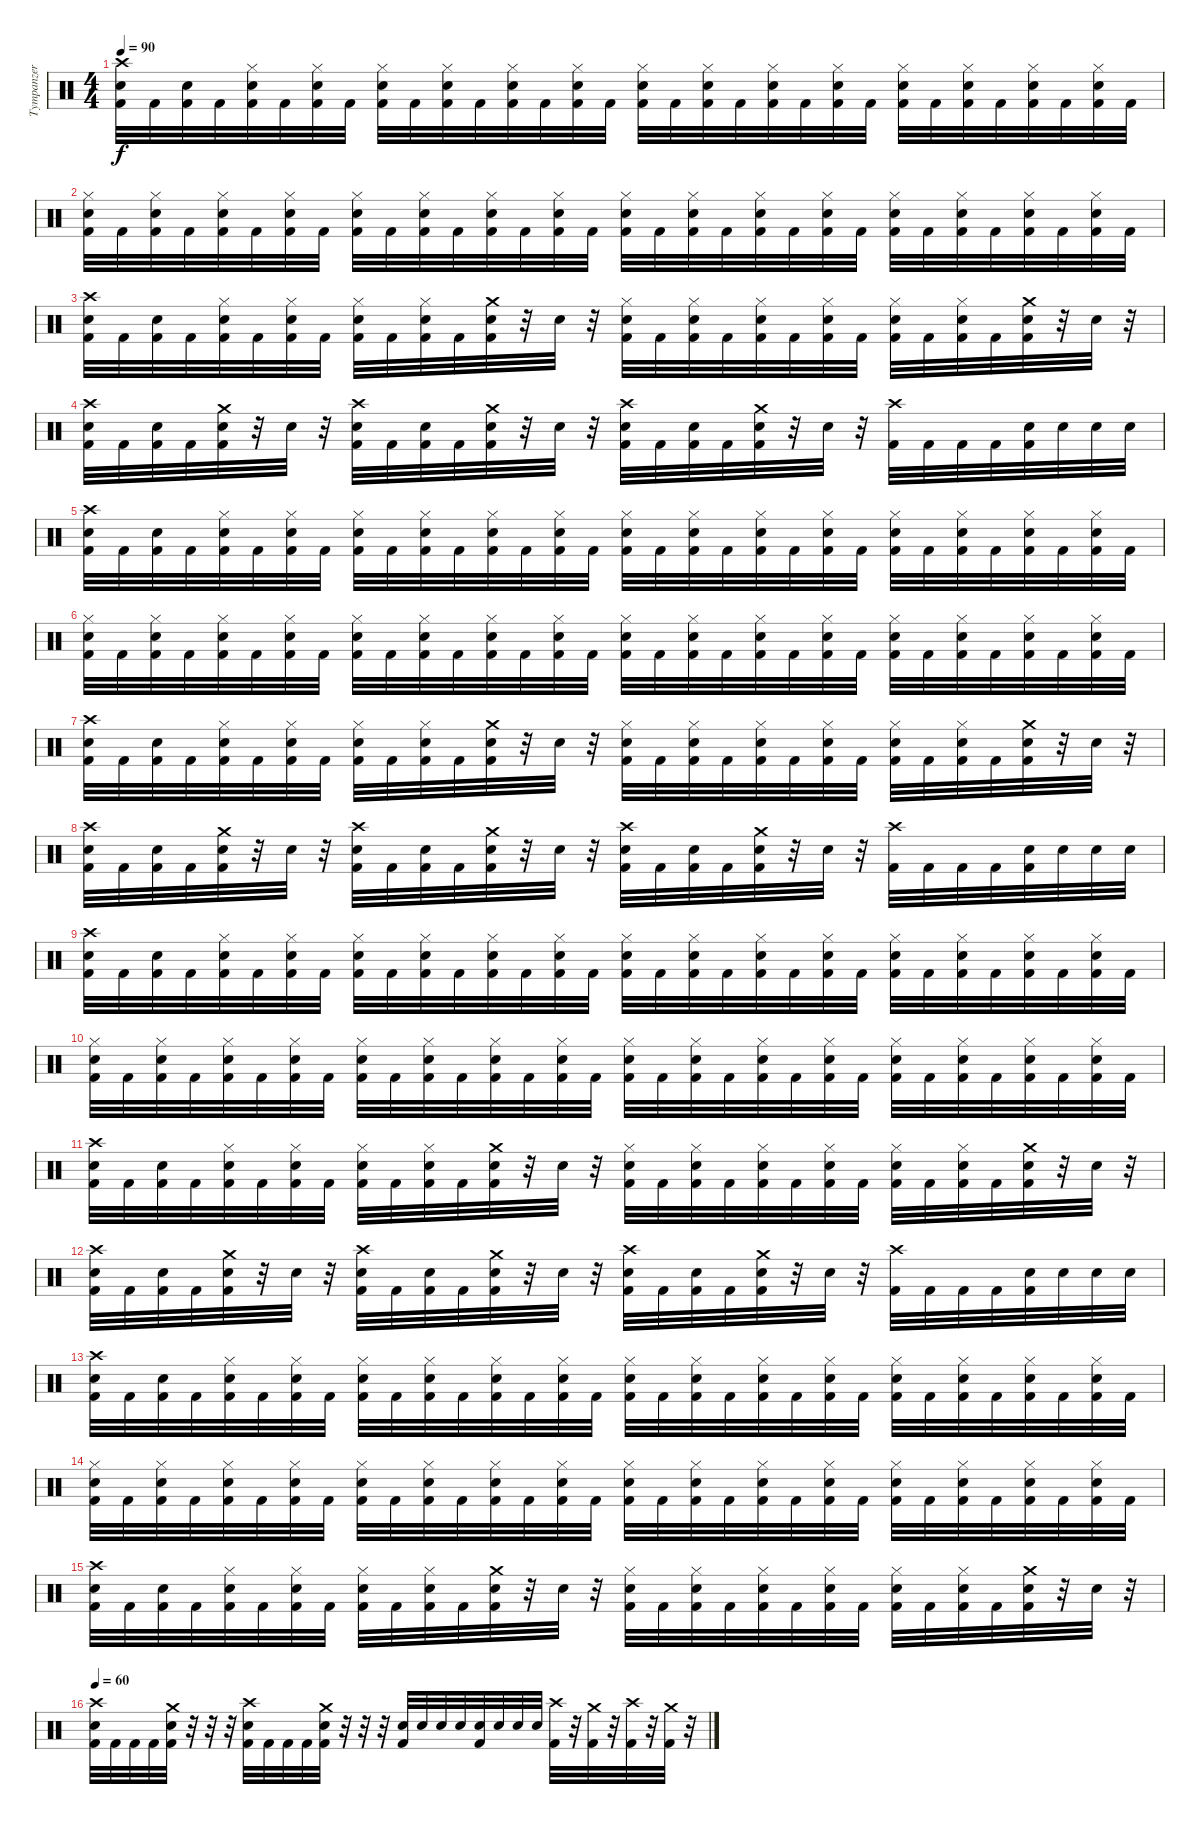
\track ("Tympanzer" "Tympanzer") {instrument percussion}
\staff {score}
\articulation defaults
\ts (4 4)
\tempo 90
\clef neutral
\ks c
("Crash high (hit)" "Electric Snare (hit)" "Kick (hit) 2").32{dy f} "Kick (hit) 2".32 ("Electric Snare (hit)" "Kick (hit) 2").32 "Kick (hit) 2".32 ("Hi-Hat (closed)" "Electric Snare (hit)" "Kick (hit) 2").32 "Kick (hit) 2".32 ("Hi-Hat (closed)" "Electric Snare (hit)" "Kick (hit) 2").32 "Kick (hit) 2".32 ("Hi-Hat (closed)" "Electric Snare (hit)" "Kick (hit) 2").32 "Kick (hit) 2".32 ("Hi-Hat (closed)" "Electric Snare (hit)" "Kick (hit) 2").32 "Kick (hit) 2".32 ("Hi-Hat (closed)" "Electric Snare (hit)" "Kick (hit) 2").32 "Kick (hit) 2".32 ("Hi-Hat (closed)" "Electric Snare (hit)" "Kick (hit) 2").32 "Kick (hit) 2".32 ("Hi-Hat (closed)" "Electric Snare (hit)" "Kick (hit) 2").32 "Kick (hit) 2".32 ("Hi-Hat (closed)" "Electric Snare (hit)" "Kick (hit) 2").32 "Kick (hit) 2".32 ("Hi-Hat (closed)" "Electric Snare (hit)" "Kick (hit) 2").32 "Kick (hit) 2".32 ("Hi-Hat (closed)" "Electric Snare (hit)" "Kick (hit) 2").32 "Kick (hit) 2".32 ("Hi-Hat (closed)" "Electric Snare (hit)" "Kick (hit) 2").32 "Kick (hit) 2".32 ("Hi-Hat (closed)" "Electric Snare (hit)" "Kick (hit) 2").32 "Kick (hit) 2".32 ("Hi-Hat (closed)" "Electric Snare (hit)" "Kick (hit) 2").32 "Kick (hit) 2".32 ("Hi-Hat (closed)" "Electric Snare (hit)" "Kick (hit) 2").32 "Kick (hit) 2".32 |
("Hi-Hat (closed)" "Electric Snare (hit)" "Kick (hit) 2").32 "Kick (hit) 2".32 ("Hi-Hat (closed)" "Electric Snare (hit)" "Kick (hit) 2").32 "Kick (hit) 2".32 ("Hi-Hat (closed)" "Electric Snare (hit)" "Kick (hit) 2").32 "Kick (hit) 2".32 ("Hi-Hat (closed)" "Electric Snare (hit)" "Kick (hit) 2").32 "Kick (hit) 2".32 ("Hi-Hat (closed)" "Electric Snare (hit)" "Kick (hit) 2").32 "Kick (hit) 2".32 ("Hi-Hat (closed)" "Electric Snare (hit)" "Kick (hit) 2").32 "Kick (hit) 2".32 ("Hi-Hat (closed)" "Electric Snare (hit)" "Kick (hit) 2").32 "Kick (hit) 2".32 ("Hi-Hat (closed)" "Electric Snare (hit)" "Kick (hit) 2").32 "Kick (hit) 2".32 ("Hi-Hat (closed)" "Electric Snare (hit)" "Kick (hit) 2").32 "Kick (hit) 2".32 ("Hi-Hat (closed)" "Electric Snare (hit)" "Kick (hit) 2").32 "Kick (hit) 2".32 ("Hi-Hat (closed)" "Electric Snare (hit)" "Kick (hit) 2").32 "Kick (hit) 2".32 ("Hi-Hat (closed)" "Electric Snare (hit)" "Kick (hit) 2").32 "Kick (hit) 2".32 ("Hi-Hat (closed)" "Electric Snare (hit)" "Kick (hit) 2").32 "Kick (hit) 2".32 ("Hi-Hat (closed)" "Electric Snare (hit)" "Kick (hit) 2").32 "Kick (hit) 2".32 ("Hi-Hat (closed)" "Electric Snare (hit)" "Kick (hit) 2").32 "Kick (hit) 2".32 ("Hi-Hat (closed)" "Electric Snare (hit)" "Kick (hit) 2").32 "Kick (hit) 2".32 |
("Crash high (hit)" "Electric Snare (hit)" "Kick (hit) 2").32 "Kick (hit) 2".32 ("Electric Snare (hit)" "Kick (hit) 2").32 "Kick (hit) 2".32 ("Hi-Hat (closed)" "Electric Snare (hit)" "Kick (hit) 2").32 "Kick (hit) 2".32 ("Hi-Hat (closed)" "Electric Snare (hit)" "Kick (hit) 2").32 "Kick (hit) 2".32 ("Hi-Hat (closed)" "Electric Snare (hit)" "Kick (hit) 2").32 "Kick (hit) 2".32 ("Hi-Hat (closed)" "Electric Snare (hit)" "Kick (hit) 2").32 "Kick (hit) 2".32 ("Crash medium (hit)" "Electric Snare (hit)" "Kick (hit) 2").32 r.32 "Electric Snare (hit)".32 r.32 ("Hi-Hat (closed)" "Electric Snare (hit)" "Kick (hit) 2").32 "Kick (hit) 2".32 ("Hi-Hat (closed)" "Electric Snare (hit)" "Kick (hit) 2").32 "Kick (hit) 2".32 ("Hi-Hat (closed)" "Electric Snare (hit)" "Kick (hit) 2").32 "Kick (hit) 2".32 ("Hi-Hat (closed)" "Electric Snare (hit)" "Kick (hit) 2").32 "Kick (hit) 2".32 ("Hi-Hat (closed)" "Electric Snare (hit)" "Kick (hit) 2").32 "Kick (hit) 2".32 ("Hi-Hat (closed)" "Electric Snare (hit)" "Kick (hit) 2").32 "Kick (hit) 2".32 ("Crash medium (hit)" "Electric Snare (hit)" "Kick (hit) 2").32 r.32 "Electric Snare (hit)".32 r.32 |
("Crash high (hit)" "Electric Snare (hit)" "Kick (hit) 2").32 "Kick (hit) 2".32 ("Electric Snare (hit)" "Kick (hit) 2").32 "Kick (hit) 2".32 ("Crash medium (hit)" "Electric Snare (hit)" "Kick (hit) 2").32 r.32 "Electric Snare (hit)".32 r.32 ("Crash high (hit)" "Electric Snare (hit)" "Kick (hit) 2").32 "Kick (hit) 2".32 ("Electric Snare (hit)" "Kick (hit) 2").32 "Kick (hit) 2".32 ("Crash medium (hit)" "Electric Snare (hit)" "Kick (hit) 2").32 r.32 "Electric Snare (hit)".32 r.32 ("Crash high (hit)" "Electric Snare (hit)" "Kick (hit) 2").32 "Kick (hit) 2".32 ("Electric Snare (hit)" "Kick (hit) 2").32 "Kick (hit) 2".32 ("Crash medium (hit)" "Electric Snare (hit)" "Kick (hit) 2").32 r.32 "Electric Snare (hit)".32 r.32 ("Crash high (hit)" "Kick (hit) 2").32 "Kick (hit) 2".32 "Kick (hit) 2".32 "Kick (hit) 2".32 ("Electric Snare (hit)" "Kick (hit) 2").32 "Electric Snare (hit)".32 "Electric Snare (hit)".32 "Electric Snare (hit)".32 |
("Crash high (hit)" "Electric Snare (hit)" "Kick (hit) 2").32 "Kick (hit) 2".32 ("Electric Snare (hit)" "Kick (hit) 2").32 "Kick (hit) 2".32 ("Hi-Hat (closed)" "Electric Snare (hit)" "Kick (hit) 2").32 "Kick (hit) 2".32 ("Hi-Hat (closed)" "Electric Snare (hit)" "Kick (hit) 2").32 "Kick (hit) 2".32 ("Hi-Hat (closed)" "Electric Snare (hit)" "Kick (hit) 2").32 "Kick (hit) 2".32 ("Hi-Hat (closed)" "Electric Snare (hit)" "Kick (hit) 2").32 "Kick (hit) 2".32 ("Hi-Hat (closed)" "Electric Snare (hit)" "Kick (hit) 2").32 "Kick (hit) 2".32 ("Hi-Hat (closed)" "Electric Snare (hit)" "Kick (hit) 2").32 "Kick (hit) 2".32 ("Hi-Hat (closed)" "Electric Snare (hit)" "Kick (hit) 2").32 "Kick (hit) 2".32 ("Hi-Hat (closed)" "Electric Snare (hit)" "Kick (hit) 2").32 "Kick (hit) 2".32 ("Hi-Hat (closed)" "Electric Snare (hit)" "Kick (hit) 2").32 "Kick (hit) 2".32 ("Hi-Hat (closed)" "Electric Snare (hit)" "Kick (hit) 2").32 "Kick (hit) 2".32 ("Hi-Hat (closed)" "Electric Snare (hit)" "Kick (hit) 2").32 "Kick (hit) 2".32 ("Hi-Hat (closed)" "Electric Snare (hit)" "Kick (hit) 2").32 "Kick (hit) 2".32 ("Hi-Hat (closed)" "Electric Snare (hit)" "Kick (hit) 2").32 "Kick (hit) 2".32 ("Hi-Hat (closed)" "Electric Snare (hit)" "Kick (hit) 2").32 "Kick (hit) 2".32 |
("Hi-Hat (closed)" "Electric Snare (hit)" "Kick (hit) 2").32 "Kick (hit) 2".32 ("Hi-Hat (closed)" "Electric Snare (hit)" "Kick (hit) 2").32 "Kick (hit) 2".32 ("Hi-Hat (closed)" "Electric Snare (hit)" "Kick (hit) 2").32 "Kick (hit) 2".32 ("Hi-Hat (closed)" "Electric Snare (hit)" "Kick (hit) 2").32 "Kick (hit) 2".32 ("Hi-Hat (closed)" "Electric Snare (hit)" "Kick (hit) 2").32 "Kick (hit) 2".32 ("Hi-Hat (closed)" "Electric Snare (hit)" "Kick (hit) 2").32 "Kick (hit) 2".32 ("Hi-Hat (closed)" "Electric Snare (hit)" "Kick (hit) 2").32 "Kick (hit) 2".32 ("Hi-Hat (closed)" "Electric Snare (hit)" "Kick (hit) 2").32 "Kick (hit) 2".32 ("Hi-Hat (closed)" "Electric Snare (hit)" "Kick (hit) 2").32 "Kick (hit) 2".32 ("Hi-Hat (closed)" "Electric Snare (hit)" "Kick (hit) 2").32 "Kick (hit) 2".32 ("Hi-Hat (closed)" "Electric Snare (hit)" "Kick (hit) 2").32 "Kick (hit) 2".32 ("Hi-Hat (closed)" "Electric Snare (hit)" "Kick (hit) 2").32 "Kick (hit) 2".32 ("Hi-Hat (closed)" "Electric Snare (hit)" "Kick (hit) 2").32 "Kick (hit) 2".32 ("Hi-Hat (closed)" "Electric Snare (hit)" "Kick (hit) 2").32 "Kick (hit) 2".32 ("Hi-Hat (closed)" "Electric Snare (hit)" "Kick (hit) 2").32 "Kick (hit) 2".32 ("Hi-Hat (closed)" "Electric Snare (hit)" "Kick (hit) 2").32 "Kick (hit) 2".32 |
("Crash high (hit)" "Electric Snare (hit)" "Kick (hit) 2").32 "Kick (hit) 2".32 ("Electric Snare (hit)" "Kick (hit) 2").32 "Kick (hit) 2".32 ("Hi-Hat (closed)" "Electric Snare (hit)" "Kick (hit) 2").32 "Kick (hit) 2".32 ("Hi-Hat (closed)" "Electric Snare (hit)" "Kick (hit) 2").32 "Kick (hit) 2".32 ("Hi-Hat (closed)" "Electric Snare (hit)" "Kick (hit) 2").32 "Kick (hit) 2".32 ("Hi-Hat (closed)" "Electric Snare (hit)" "Kick (hit) 2").32 "Kick (hit) 2".32 ("Crash medium (hit)" "Electric Snare (hit)" "Kick (hit) 2").32 r.32 "Electric Snare (hit)".32 r.32 ("Hi-Hat (closed)" "Electric Snare (hit)" "Kick (hit) 2").32 "Kick (hit) 2".32 ("Hi-Hat (closed)" "Electric Snare (hit)" "Kick (hit) 2").32 "Kick (hit) 2".32 ("Hi-Hat (closed)" "Electric Snare (hit)" "Kick (hit) 2").32 "Kick (hit) 2".32 ("Hi-Hat (closed)" "Electric Snare (hit)" "Kick (hit) 2").32 "Kick (hit) 2".32 ("Hi-Hat (closed)" "Electric Snare (hit)" "Kick (hit) 2").32 "Kick (hit) 2".32 ("Hi-Hat (closed)" "Electric Snare (hit)" "Kick (hit) 2").32 "Kick (hit) 2".32 ("Crash medium (hit)" "Electric Snare (hit)" "Kick (hit) 2").32 r.32 "Electric Snare (hit)".32 r.32 |
("Crash high (hit)" "Electric Snare (hit)" "Kick (hit) 2").32 "Kick (hit) 2".32 ("Electric Snare (hit)" "Kick (hit) 2").32 "Kick (hit) 2".32 ("Crash medium (hit)" "Electric Snare (hit)" "Kick (hit) 2").32 r.32 "Electric Snare (hit)".32 r.32 ("Crash high (hit)" "Electric Snare (hit)" "Kick (hit) 2").32 "Kick (hit) 2".32 ("Electric Snare (hit)" "Kick (hit) 2").32 "Kick (hit) 2".32 ("Crash medium (hit)" "Electric Snare (hit)" "Kick (hit) 2").32 r.32 "Electric Snare (hit)".32 r.32 ("Crash high (hit)" "Electric Snare (hit)" "Kick (hit) 2").32 "Kick (hit) 2".32 ("Electric Snare (hit)" "Kick (hit) 2").32 "Kick (hit) 2".32 ("Crash medium (hit)" "Electric Snare (hit)" "Kick (hit) 2").32 r.32 "Electric Snare (hit)".32 r.32 ("Crash high (hit)" "Kick (hit) 2").32 "Kick (hit) 2".32 "Kick (hit) 2".32 "Kick (hit) 2".32 ("Electric Snare (hit)" "Kick (hit) 2").32 "Electric Snare (hit)".32 "Electric Snare (hit)".32 "Electric Snare (hit)".32 |
("Crash high (hit)" "Electric Snare (hit)" "Kick (hit) 2").32 "Kick (hit) 2".32 ("Electric Snare (hit)" "Kick (hit) 2").32 "Kick (hit) 2".32 ("Hi-Hat (closed)" "Electric Snare (hit)" "Kick (hit) 2").32 "Kick (hit) 2".32 ("Hi-Hat (closed)" "Electric Snare (hit)" "Kick (hit) 2").32 "Kick (hit) 2".32 ("Hi-Hat (closed)" "Electric Snare (hit)" "Kick (hit) 2").32 "Kick (hit) 2".32 ("Hi-Hat (closed)" "Electric Snare (hit)" "Kick (hit) 2").32 "Kick (hit) 2".32 ("Hi-Hat (closed)" "Electric Snare (hit)" "Kick (hit) 2").32 "Kick (hit) 2".32 ("Hi-Hat (closed)" "Electric Snare (hit)" "Kick (hit) 2").32 "Kick (hit) 2".32 ("Hi-Hat (closed)" "Electric Snare (hit)" "Kick (hit) 2").32 "Kick (hit) 2".32 ("Hi-Hat (closed)" "Electric Snare (hit)" "Kick (hit) 2").32 "Kick (hit) 2".32 ("Hi-Hat (closed)" "Electric Snare (hit)" "Kick (hit) 2").32 "Kick (hit) 2".32 ("Hi-Hat (closed)" "Electric Snare (hit)" "Kick (hit) 2").32 "Kick (hit) 2".32 ("Hi-Hat (closed)" "Electric Snare (hit)" "Kick (hit) 2").32 "Kick (hit) 2".32 ("Hi-Hat (closed)" "Electric Snare (hit)" "Kick (hit) 2").32 "Kick (hit) 2".32 ("Hi-Hat (closed)" "Electric Snare (hit)" "Kick (hit) 2").32 "Kick (hit) 2".32 ("Hi-Hat (closed)" "Electric Snare (hit)" "Kick (hit) 2").32 "Kick (hit) 2".32 |
("Hi-Hat (closed)" "Electric Snare (hit)" "Kick (hit) 2").32 "Kick (hit) 2".32 ("Hi-Hat (closed)" "Electric Snare (hit)" "Kick (hit) 2").32 "Kick (hit) 2".32 ("Hi-Hat (closed)" "Electric Snare (hit)" "Kick (hit) 2").32 "Kick (hit) 2".32 ("Hi-Hat (closed)" "Electric Snare (hit)" "Kick (hit) 2").32 "Kick (hit) 2".32 ("Hi-Hat (closed)" "Electric Snare (hit)" "Kick (hit) 2").32 "Kick (hit) 2".32 ("Hi-Hat (closed)" "Electric Snare (hit)" "Kick (hit) 2").32 "Kick (hit) 2".32 ("Hi-Hat (closed)" "Electric Snare (hit)" "Kick (hit) 2").32 "Kick (hit) 2".32 ("Hi-Hat (closed)" "Electric Snare (hit)" "Kick (hit) 2").32 "Kick (hit) 2".32 ("Hi-Hat (closed)" "Electric Snare (hit)" "Kick (hit) 2").32 "Kick (hit) 2".32 ("Hi-Hat (closed)" "Electric Snare (hit)" "Kick (hit) 2").32 "Kick (hit) 2".32 ("Hi-Hat (closed)" "Electric Snare (hit)" "Kick (hit) 2").32 "Kick (hit) 2".32 ("Hi-Hat (closed)" "Electric Snare (hit)" "Kick (hit) 2").32 "Kick (hit) 2".32 ("Hi-Hat (closed)" "Electric Snare (hit)" "Kick (hit) 2").32 "Kick (hit) 2".32 ("Hi-Hat (closed)" "Electric Snare (hit)" "Kick (hit) 2").32 "Kick (hit) 2".32 ("Hi-Hat (closed)" "Electric Snare (hit)" "Kick (hit) 2").32 "Kick (hit) 2".32 ("Hi-Hat (closed)" "Electric Snare (hit)" "Kick (hit) 2").32 "Kick (hit) 2".32 |
("Crash high (hit)" "Electric Snare (hit)" "Kick (hit) 2").32 "Kick (hit) 2".32 ("Electric Snare (hit)" "Kick (hit) 2").32 "Kick (hit) 2".32 ("Hi-Hat (closed)" "Electric Snare (hit)" "Kick (hit) 2").32 "Kick (hit) 2".32 ("Hi-Hat (closed)" "Electric Snare (hit)" "Kick (hit) 2").32 "Kick (hit) 2".32 ("Hi-Hat (closed)" "Electric Snare (hit)" "Kick (hit) 2").32 "Kick (hit) 2".32 ("Hi-Hat (closed)" "Electric Snare (hit)" "Kick (hit) 2").32 "Kick (hit) 2".32 ("Crash medium (hit)" "Electric Snare (hit)" "Kick (hit) 2").32 r.32 "Electric Snare (hit)".32 r.32 ("Hi-Hat (closed)" "Electric Snare (hit)" "Kick (hit) 2").32 "Kick (hit) 2".32 ("Hi-Hat (closed)" "Electric Snare (hit)" "Kick (hit) 2").32 "Kick (hit) 2".32 ("Hi-Hat (closed)" "Electric Snare (hit)" "Kick (hit) 2").32 "Kick (hit) 2".32 ("Hi-Hat (closed)" "Electric Snare (hit)" "Kick (hit) 2").32 "Kick (hit) 2".32 ("Hi-Hat (closed)" "Electric Snare (hit)" "Kick (hit) 2").32 "Kick (hit) 2".32 ("Hi-Hat (closed)" "Electric Snare (hit)" "Kick (hit) 2").32 "Kick (hit) 2".32 ("Crash medium (hit)" "Electric Snare (hit)" "Kick (hit) 2").32 r.32 "Electric Snare (hit)".32 r.32 |
("Crash high (hit)" "Electric Snare (hit)" "Kick (hit) 2").32 "Kick (hit) 2".32 ("Electric Snare (hit)" "Kick (hit) 2").32 "Kick (hit) 2".32 ("Crash medium (hit)" "Electric Snare (hit)" "Kick (hit) 2").32 r.32 "Electric Snare (hit)".32 r.32 ("Crash high (hit)" "Electric Snare (hit)" "Kick (hit) 2").32 "Kick (hit) 2".32 ("Electric Snare (hit)" "Kick (hit) 2").32 "Kick (hit) 2".32 ("Crash medium (hit)" "Electric Snare (hit)" "Kick (hit) 2").32 r.32 "Electric Snare (hit)".32 r.32 ("Crash high (hit)" "Electric Snare (hit)" "Kick (hit) 2").32 "Kick (hit) 2".32 ("Electric Snare (hit)" "Kick (hit) 2").32 "Kick (hit) 2".32 ("Crash medium (hit)" "Electric Snare (hit)" "Kick (hit) 2").32 r.32 "Electric Snare (hit)".32 r.32 ("Crash high (hit)" "Kick (hit) 2").32 "Kick (hit) 2".32 "Kick (hit) 2".32 "Kick (hit) 2".32 ("Electric Snare (hit)" "Kick (hit) 2").32 "Electric Snare (hit)".32 "Electric Snare (hit)".32 "Electric Snare (hit)".32 |
("Crash high (hit)" "Electric Snare (hit)" "Kick (hit) 2").32 "Kick (hit) 2".32 ("Electric Snare (hit)" "Kick (hit) 2").32 "Kick (hit) 2".32 ("Hi-Hat (closed)" "Electric Snare (hit)" "Kick (hit) 2").32 "Kick (hit) 2".32 ("Hi-Hat (closed)" "Electric Snare (hit)" "Kick (hit) 2").32 "Kick (hit) 2".32 ("Hi-Hat (closed)" "Electric Snare (hit)" "Kick (hit) 2").32 "Kick (hit) 2".32 ("Hi-Hat (closed)" "Electric Snare (hit)" "Kick (hit) 2").32 "Kick (hit) 2".32 ("Hi-Hat (closed)" "Electric Snare (hit)" "Kick (hit) 2").32 "Kick (hit) 2".32 ("Hi-Hat (closed)" "Electric Snare (hit)" "Kick (hit) 2").32 "Kick (hit) 2".32 ("Hi-Hat (closed)" "Electric Snare (hit)" "Kick (hit) 2").32 "Kick (hit) 2".32 ("Hi-Hat (closed)" "Electric Snare (hit)" "Kick (hit) 2").32 "Kick (hit) 2".32 ("Hi-Hat (closed)" "Electric Snare (hit)" "Kick (hit) 2").32 "Kick (hit) 2".32 ("Hi-Hat (closed)" "Electric Snare (hit)" "Kick (hit) 2").32 "Kick (hit) 2".32 ("Hi-Hat (closed)" "Electric Snare (hit)" "Kick (hit) 2").32 "Kick (hit) 2".32 ("Hi-Hat (closed)" "Electric Snare (hit)" "Kick (hit) 2").32 "Kick (hit) 2".32 ("Hi-Hat (closed)" "Electric Snare (hit)" "Kick (hit) 2").32 "Kick (hit) 2".32 ("Hi-Hat (closed)" "Electric Snare (hit)" "Kick (hit) 2").32 "Kick (hit) 2".32 |
("Hi-Hat (closed)" "Electric Snare (hit)" "Kick (hit) 2").32 "Kick (hit) 2".32 ("Hi-Hat (closed)" "Electric Snare (hit)" "Kick (hit) 2").32 "Kick (hit) 2".32 ("Hi-Hat (closed)" "Electric Snare (hit)" "Kick (hit) 2").32 "Kick (hit) 2".32 ("Hi-Hat (closed)" "Electric Snare (hit)" "Kick (hit) 2").32 "Kick (hit) 2".32 ("Hi-Hat (closed)" "Electric Snare (hit)" "Kick (hit) 2").32 "Kick (hit) 2".32 ("Hi-Hat (closed)" "Electric Snare (hit)" "Kick (hit) 2").32 "Kick (hit) 2".32 ("Hi-Hat (closed)" "Electric Snare (hit)" "Kick (hit) 2").32 "Kick (hit) 2".32 ("Hi-Hat (closed)" "Electric Snare (hit)" "Kick (hit) 2").32 "Kick (hit) 2".32 ("Hi-Hat (closed)" "Electric Snare (hit)" "Kick (hit) 2").32 "Kick (hit) 2".32 ("Hi-Hat (closed)" "Electric Snare (hit)" "Kick (hit) 2").32 "Kick (hit) 2".32 ("Hi-Hat (closed)" "Electric Snare (hit)" "Kick (hit) 2").32 "Kick (hit) 2".32 ("Hi-Hat (closed)" "Electric Snare (hit)" "Kick (hit) 2").32 "Kick (hit) 2".32 ("Hi-Hat (closed)" "Electric Snare (hit)" "Kick (hit) 2").32 "Kick (hit) 2".32 ("Hi-Hat (closed)" "Electric Snare (hit)" "Kick (hit) 2").32 "Kick (hit) 2".32 ("Hi-Hat (closed)" "Electric Snare (hit)" "Kick (hit) 2").32 "Kick (hit) 2".32 ("Hi-Hat (closed)" "Electric Snare (hit)" "Kick (hit) 2").32 "Kick (hit) 2".32 |
("Crash high (hit)" "Electric Snare (hit)" "Kick (hit) 2").32 "Kick (hit) 2".32 ("Electric Snare (hit)" "Kick (hit) 2").32 "Kick (hit) 2".32 ("Hi-Hat (closed)" "Electric Snare (hit)" "Kick (hit) 2").32 "Kick (hit) 2".32 ("Hi-Hat (closed)" "Electric Snare (hit)" "Kick (hit) 2").32 "Kick (hit) 2".32 ("Hi-Hat (closed)" "Electric Snare (hit)" "Kick (hit) 2").32 "Kick (hit) 2".32 ("Hi-Hat (closed)" "Electric Snare (hit)" "Kick (hit) 2").32 "Kick (hit) 2".32 ("Crash medium (hit)" "Electric Snare (hit)" "Kick (hit) 2").32 r.32 "Electric Snare (hit)".32 r.32 ("Hi-Hat (closed)" "Electric Snare (hit)" "Kick (hit) 2").32 "Kick (hit) 2".32 ("Hi-Hat (closed)" "Electric Snare (hit)" "Kick (hit) 2").32 "Kick (hit) 2".32 ("Hi-Hat (closed)" "Electric Snare (hit)" "Kick (hit) 2").32 "Kick (hit) 2".32 ("Hi-Hat (closed)" "Electric Snare (hit)" "Kick (hit) 2").32 "Kick (hit) 2".32 ("Hi-Hat (closed)" "Electric Snare (hit)" "Kick (hit) 2").32 "Kick (hit) 2".32 ("Hi-Hat (closed)" "Electric Snare (hit)" "Kick (hit) 2").32 "Kick (hit) 2".32 ("Crash medium (hit)" "Electric Snare (hit)" "Kick (hit) 2").32 r.32 "Electric Snare (hit)".32 r.32 |
\tempo 60
("Crash high (hit)" "Electric Snare (hit)" "Kick (hit) 2").32 "Kick (hit) 2".32 "Kick (hit) 2".32 "Kick (hit) 2".32 ("Crash medium (hit)" "Electric Snare (hit)" "Kick (hit) 2").32 r.32 r.32 r.32 ("Crash high (hit)" "Electric Snare (hit)" "Kick (hit) 2").32 "Kick (hit) 2".32 "Kick (hit) 2".32 "Kick (hit) 2".32 ("Crash medium (hit)" "Electric Snare (hit)" "Kick (hit) 2").32 r.32 r.32 r.32 ("Electric Snare (hit)" "Kick (hit) 2").32 "Electric Snare (hit)".32 "Electric Snare (hit)".32 "Electric Snare (hit)".32 ("Electric Snare (hit)" "Kick (hit) 2").32 "Electric Snare (hit)".32 "Electric Snare (hit)".32 "Electric Snare (hit)".32 ("Crash high (hit)" "Kick (hit) 2").32 r.32 ("Crash medium (hit)" "Kick (hit) 2").32 r.32 ("Crash high (hit)" "Kick (hit) 2").32 r.32 ("Crash medium (hit)" "Kick (hit) 2").32 r.32
